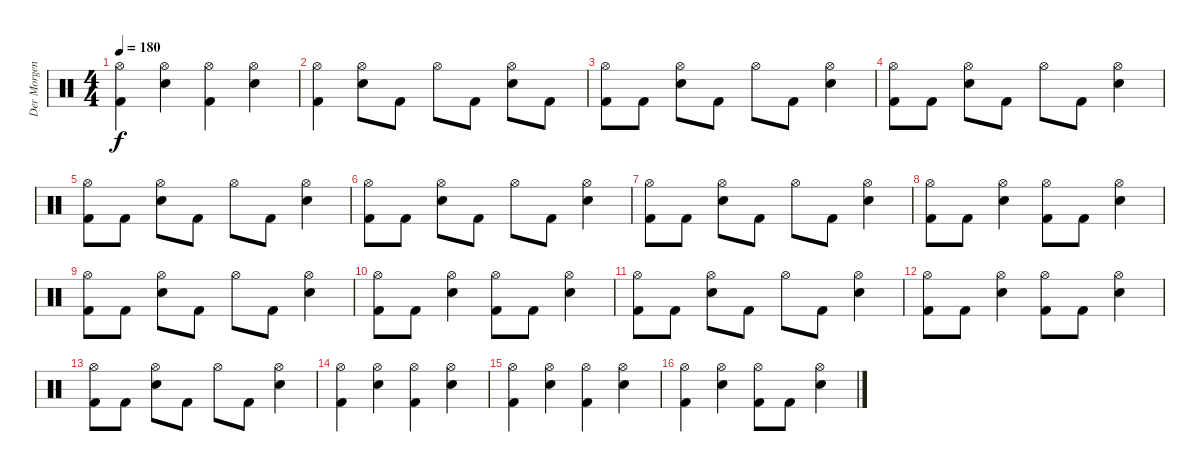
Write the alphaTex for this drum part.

\track ("Der Morgenstern" "Der Morgen") {instrument percussion}
\staff {score}
\articulation defaults
\ts (4 4)
\tempo 180
\clef neutral
\ks c
("Hi-Hat (open)" "Kick (hit) 2").4{dy f} ("Hi-Hat (open)" "Electric Snare (hit)").4 ("Hi-Hat (open)" "Kick (hit) 2").4 ("Hi-Hat (open)" "Electric Snare (hit)").4 |
("Hi-Hat (open)" "Kick (hit) 2").4 ("Hi-Hat (open)" "Electric Snare (hit)").8 "Kick (hit) 2".8 "Hi-Hat (open)".8 "Kick (hit) 2".8 ("Hi-Hat (open)" "Electric Snare (hit)").8 "Kick (hit) 2".8 |
("Hi-Hat (open)" "Kick (hit) 2").8 "Kick (hit) 2".8 ("Hi-Hat (open)" "Electric Snare (hit)").8 "Kick (hit) 2".8 "Hi-Hat (open)".8 "Kick (hit) 2".8 ("Hi-Hat (open)" "Electric Snare (hit)").4 |
("Hi-Hat (open)" "Kick (hit) 2").8 "Kick (hit) 2".8 ("Hi-Hat (open)" "Electric Snare (hit)").8 "Kick (hit) 2".8 "Hi-Hat (open)".8 "Kick (hit) 2".8 ("Hi-Hat (open)" "Electric Snare (hit)").4 |
("Hi-Hat (open)" "Kick (hit) 2").8 "Kick (hit) 2".8 ("Hi-Hat (open)" "Electric Snare (hit)").8 "Kick (hit) 2".8 "Hi-Hat (open)".8 "Kick (hit) 2".8 ("Hi-Hat (open)" "Electric Snare (hit)").4 |
("Hi-Hat (open)" "Kick (hit) 2").8 "Kick (hit) 2".8 ("Hi-Hat (open)" "Electric Snare (hit)").8 "Kick (hit) 2".8 "Hi-Hat (open)".8 "Kick (hit) 2".8 ("Hi-Hat (open)" "Electric Snare (hit)").4 |
("Hi-Hat (open)" "Kick (hit) 2").8 "Kick (hit) 2".8 ("Hi-Hat (open)" "Electric Snare (hit)").8 "Kick (hit) 2".8 "Hi-Hat (open)".8 "Kick (hit) 2".8 ("Hi-Hat (open)" "Electric Snare (hit)").4 |
("Hi-Hat (open)" "Kick (hit) 2").8 "Kick (hit) 2".8 ("Hi-Hat (open)" "Electric Snare (hit)").4 ("Hi-Hat (open)" "Kick (hit) 2").8 "Kick (hit) 2".8 ("Hi-Hat (open)" "Electric Snare (hit)").4 |
("Hi-Hat (open)" "Kick (hit) 2").8 "Kick (hit) 2".8 ("Hi-Hat (open)" "Electric Snare (hit)").8 "Kick (hit) 2".8 "Hi-Hat (open)".8 "Kick (hit) 2".8 ("Hi-Hat (open)" "Electric Snare (hit)").4 |
("Hi-Hat (open)" "Kick (hit) 2").8 "Kick (hit) 2".8 ("Hi-Hat (open)" "Electric Snare (hit)").4 ("Hi-Hat (open)" "Kick (hit) 2").8 "Kick (hit) 2".8 ("Hi-Hat (open)" "Electric Snare (hit)").4 |
("Hi-Hat (open)" "Kick (hit) 2").8 "Kick (hit) 2".8 ("Hi-Hat (open)" "Electric Snare (hit)").8 "Kick (hit) 2".8 "Hi-Hat (open)".8 "Kick (hit) 2".8 ("Hi-Hat (open)" "Electric Snare (hit)").4 |
("Hi-Hat (open)" "Kick (hit) 2").8 "Kick (hit) 2".8 ("Hi-Hat (open)" "Electric Snare (hit)").4 ("Hi-Hat (open)" "Kick (hit) 2").8 "Kick (hit) 2".8 ("Hi-Hat (open)" "Electric Snare (hit)").4 |
("Hi-Hat (open)" "Kick (hit) 2").8 "Kick (hit) 2".8 ("Hi-Hat (open)" "Electric Snare (hit)").8 "Kick (hit) 2".8 "Hi-Hat (open)".8 "Kick (hit) 2".8 ("Hi-Hat (open)" "Electric Snare (hit)").4 |
("Hi-Hat (open)" "Kick (hit) 2").4 ("Hi-Hat (open)" "Electric Snare (hit)").4 ("Hi-Hat (open)" "Kick (hit) 2").4 ("Hi-Hat (open)" "Electric Snare (hit)").4 |
("Hi-Hat (open)" "Kick (hit) 2").4 ("Hi-Hat (open)" "Electric Snare (hit)").4 ("Hi-Hat (open)" "Kick (hit) 2").4 ("Hi-Hat (open)" "Electric Snare (hit)").4 |
("Hi-Hat (open)" "Kick (hit) 2").4 ("Hi-Hat (open)" "Electric Snare (hit)").4 ("Hi-Hat (open)" "Kick (hit) 2").8 "Kick (hit) 2".8 ("Hi-Hat (open)" "Electric Snare (hit)").4
